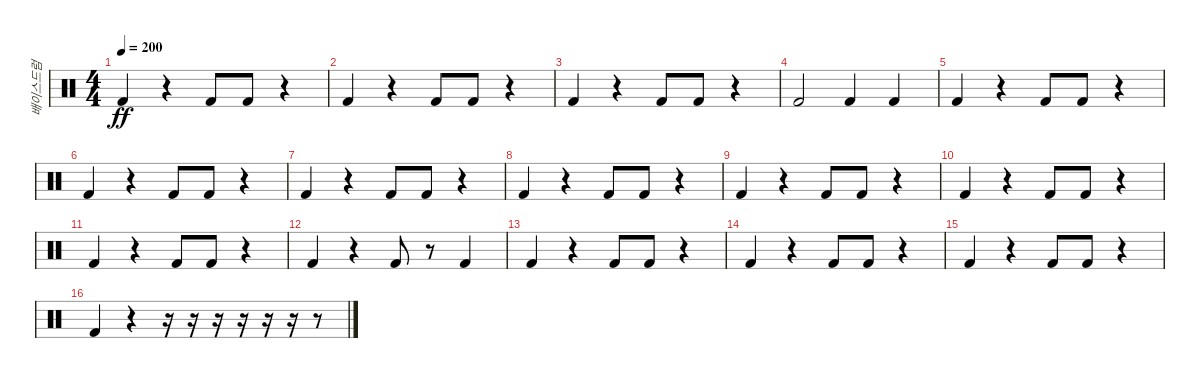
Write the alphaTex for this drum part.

\track ("배이스드럼" "배이스드럼") {instrument percussion}
\staff {score}
\articulation defaults
\ts (4 4)
\tempo 200
\clef neutral
\ks c "Kick (hit) 2".4{dy ff}
r.4 "Kick (hit) 2".8 "Kick (hit) 2".8 r.4 |
"Kick (hit) 2".4 r.4 "Kick (hit) 2".8 "Kick (hit) 2".8 r.4 |
"Kick (hit) 2".4 r.4 "Kick (hit) 2".8 "Kick (hit) 2".8 r.4 |
"Kick (hit) 2".2 "Kick (hit) 2".4 "Kick (hit) 2".4 |
"Kick (hit) 2".4 r.4 "Kick (hit) 2".8 "Kick (hit) 2".8 r.4 |
"Kick (hit) 2".4 r.4 "Kick (hit) 2".8 "Kick (hit) 2".8 r.4 |
"Kick (hit) 2".4 r.4 "Kick (hit) 2".8 "Kick (hit) 2".8 r.4 |
"Kick (hit) 2".4 r.4 "Kick (hit) 2".8 "Kick (hit) 2".8 r.4 |
"Kick (hit) 2".4 r.4 "Kick (hit) 2".8 "Kick (hit) 2".8 r.4 |
"Kick (hit) 2".4 r.4 "Kick (hit) 2".8 "Kick (hit) 2".8 r.4 |
"Kick (hit) 2".4 r.4 "Kick (hit) 2".8 "Kick (hit) 2".8 r.4 |
"Kick (hit) 2".4 r.4 "Kick (hit) 2".8 r.8 "Kick (hit) 2".4 |
"Kick (hit) 2".4 r.4 "Kick (hit) 2".8 "Kick (hit) 2".8 r.4 |
"Kick (hit) 2".4 r.4 "Kick (hit) 2".8 "Kick (hit) 2".8 r.4 |
"Kick (hit) 2".4 r.4 "Kick (hit) 2".8 "Kick (hit) 2".8 r.4 |
"Kick (hit) 2".4 r.4 r.16 r.16 r.16 r.16 r.16 r.16 r.8
